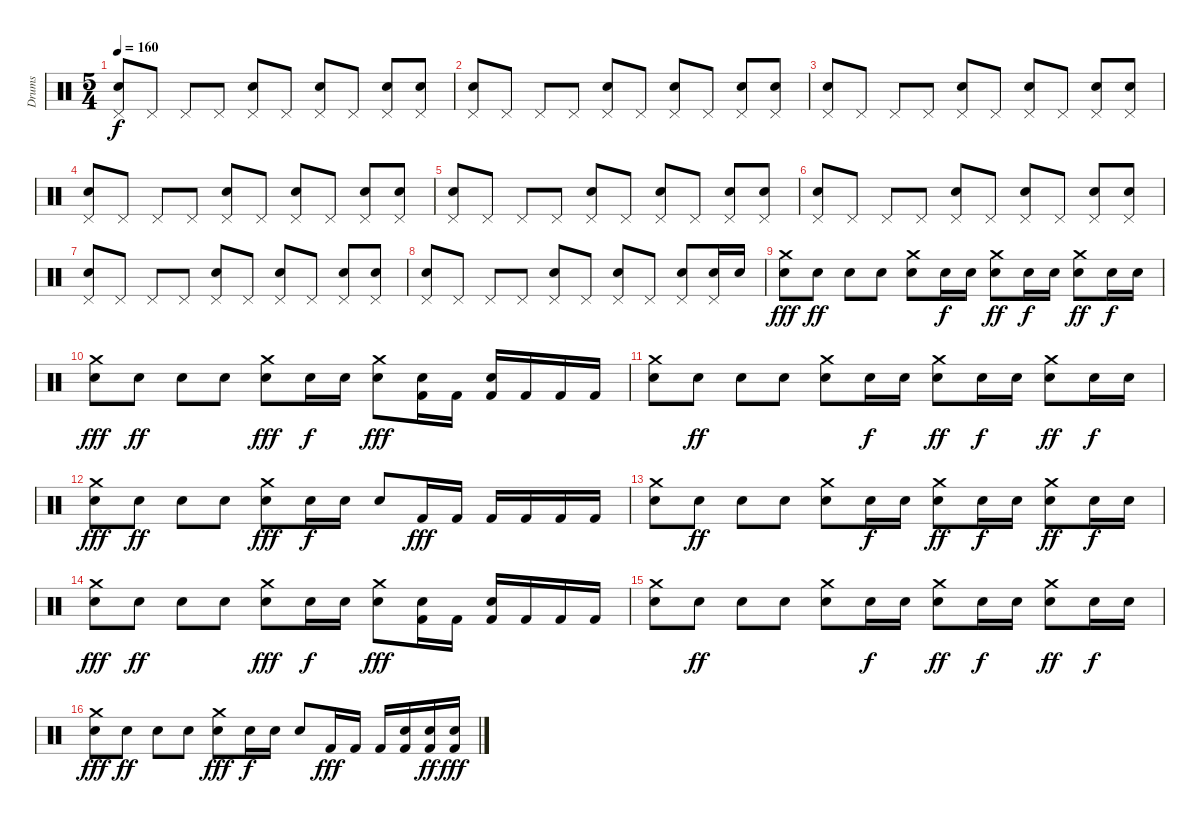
\track ("Drums" "Drums") {instrument percussion}
\staff {score}
\articulation defaults
\ts (5 4)
\tempo 160
\clef neutral
\ks c
("Pedal Hi-Hat (hit)" "Electric Snare (hit)").8{dy f} "Pedal Hi-Hat (hit)".8 "Pedal Hi-Hat (hit)".8 "Pedal Hi-Hat (hit)".8 ("Pedal Hi-Hat (hit)" "Electric Snare (hit)").8 "Pedal Hi-Hat (hit)".8 ("Pedal Hi-Hat (hit)" "Electric Snare (hit)").8 "Pedal Hi-Hat (hit)".8 ("Pedal Hi-Hat (hit)" "Electric Snare (hit)").8 ("Pedal Hi-Hat (hit)" "Electric Snare (hit)").8 |
("Pedal Hi-Hat (hit)" "Electric Snare (hit)").8 "Pedal Hi-Hat (hit)".8 "Pedal Hi-Hat (hit)".8 "Pedal Hi-Hat (hit)".8 ("Pedal Hi-Hat (hit)" "Electric Snare (hit)").8 "Pedal Hi-Hat (hit)".8 ("Pedal Hi-Hat (hit)" "Electric Snare (hit)").8 "Pedal Hi-Hat (hit)".8 ("Pedal Hi-Hat (hit)" "Electric Snare (hit)").8 ("Pedal Hi-Hat (hit)" "Electric Snare (hit)").8 |
("Pedal Hi-Hat (hit)" "Electric Snare (hit)").8 "Pedal Hi-Hat (hit)".8 "Pedal Hi-Hat (hit)".8 "Pedal Hi-Hat (hit)".8 ("Pedal Hi-Hat (hit)" "Electric Snare (hit)").8 "Pedal Hi-Hat (hit)".8 ("Pedal Hi-Hat (hit)" "Electric Snare (hit)").8 "Pedal Hi-Hat (hit)".8 ("Pedal Hi-Hat (hit)" "Electric Snare (hit)").8 ("Pedal Hi-Hat (hit)" "Electric Snare (hit)").8 |
("Pedal Hi-Hat (hit)" "Electric Snare (hit)").8 "Pedal Hi-Hat (hit)".8 "Pedal Hi-Hat (hit)".8 "Pedal Hi-Hat (hit)".8 ("Pedal Hi-Hat (hit)" "Electric Snare (hit)").8 "Pedal Hi-Hat (hit)".8 ("Pedal Hi-Hat (hit)" "Electric Snare (hit)").8 "Pedal Hi-Hat (hit)".8 ("Pedal Hi-Hat (hit)" "Electric Snare (hit)").8 ("Pedal Hi-Hat (hit)" "Electric Snare (hit)").8 |
("Pedal Hi-Hat (hit)" "Electric Snare (hit)").8 "Pedal Hi-Hat (hit)".8 "Pedal Hi-Hat (hit)".8 "Pedal Hi-Hat (hit)".8 ("Pedal Hi-Hat (hit)" "Electric Snare (hit)").8 "Pedal Hi-Hat (hit)".8 ("Pedal Hi-Hat (hit)" "Electric Snare (hit)").8 "Pedal Hi-Hat (hit)".8 ("Pedal Hi-Hat (hit)" "Electric Snare (hit)").8 ("Pedal Hi-Hat (hit)" "Electric Snare (hit)").8 |
("Pedal Hi-Hat (hit)" "Electric Snare (hit)").8 "Pedal Hi-Hat (hit)".8 "Pedal Hi-Hat (hit)".8 "Pedal Hi-Hat (hit)".8 ("Pedal Hi-Hat (hit)" "Electric Snare (hit)").8 "Pedal Hi-Hat (hit)".8 ("Pedal Hi-Hat (hit)" "Electric Snare (hit)").8 "Pedal Hi-Hat (hit)".8 ("Pedal Hi-Hat (hit)" "Electric Snare (hit)").8 ("Pedal Hi-Hat (hit)" "Electric Snare (hit)").8 |
("Pedal Hi-Hat (hit)" "Electric Snare (hit)").8 "Pedal Hi-Hat (hit)".8 "Pedal Hi-Hat (hit)".8 "Pedal Hi-Hat (hit)".8 ("Pedal Hi-Hat (hit)" "Electric Snare (hit)").8 "Pedal Hi-Hat (hit)".8 ("Pedal Hi-Hat (hit)" "Electric Snare (hit)").8 "Pedal Hi-Hat (hit)".8 ("Pedal Hi-Hat (hit)" "Electric Snare (hit)").8 ("Pedal Hi-Hat (hit)" "Electric Snare (hit)").8 |
("Pedal Hi-Hat (hit)" "Electric Snare (hit)").8 "Pedal Hi-Hat (hit)".8 "Pedal Hi-Hat (hit)".8 "Pedal Hi-Hat (hit)".8 ("Pedal Hi-Hat (hit)" "Electric Snare (hit)").8 "Pedal Hi-Hat (hit)".8 ("Pedal Hi-Hat (hit)" "Electric Snare (hit)").8 "Pedal Hi-Hat (hit)".8 ("Pedal Hi-Hat (hit)" "Electric Snare (hit)").8 ("Pedal Hi-Hat (hit)" "Electric Snare (hit)").16 "Electric Snare (hit)".16 |
("Electric Snare (hit)" "Crash medium (hit)").8{dy fff} "Electric Snare (hit)".8{dy ff} "Electric Snare (hit)".8 "Electric Snare (hit)".8 ("Electric Snare (hit)" "Crash medium (hit)").8 "Electric Snare (hit)".16{dy f} "Electric Snare (hit)".16 ("Electric Snare (hit)" "Crash medium (hit)").8{dy ff} "Electric Snare (hit)".16{dy f} "Electric Snare (hit)".16 ("Electric Snare (hit)" "Crash medium (hit)").8{dy ff} "Electric Snare (hit)".16{dy f} "Electric Snare (hit)".16 |
("Electric Snare (hit)" "Crash medium (hit)").8{dy fff} "Electric Snare (hit)".8{dy ff} "Electric Snare (hit)".8 "Electric Snare (hit)".8 ("Electric Snare (hit)" "Crash medium (hit)").8{dy fff} "Electric Snare (hit)".16{dy f} "Electric Snare (hit)".16 ("Electric Snare (hit)" "Crash medium (hit)").8{dy fff} ("Kick (hit) 2" "Electric Snare (hit)").16 "Kick (hit) 2".16 ("Kick (hit) 2" "Electric Snare (hit)").16 "Kick (hit) 2".16 "Kick (hit) 2".16 "Kick (hit) 2".16 |
("Electric Snare (hit)" "Crash medium (hit)").8 "Electric Snare (hit)".8{dy ff} "Electric Snare (hit)".8 "Electric Snare (hit)".8 ("Electric Snare (hit)" "Crash medium (hit)").8 "Electric Snare (hit)".16{dy f} "Electric Snare (hit)".16 ("Electric Snare (hit)" "Crash medium (hit)").8{dy ff} "Electric Snare (hit)".16{dy f} "Electric Snare (hit)".16 ("Electric Snare (hit)" "Crash medium (hit)").8{dy ff} "Electric Snare (hit)".16{dy f} "Electric Snare (hit)".16 |
("Electric Snare (hit)" "Crash medium (hit)").8{dy fff} "Electric Snare (hit)".8{dy ff} "Electric Snare (hit)".8 "Electric Snare (hit)".8 ("Electric Snare (hit)" "Crash medium (hit)").8{dy fff} "Electric Snare (hit)".16{dy f} "Electric Snare (hit)".16 "Electric Snare (hit)".8 "Kick (hit) 2".16{dy fff} "Kick (hit) 2".16 "Kick (hit) 2".16 "Kick (hit) 2".16 "Kick (hit) 2".16 "Kick (hit) 2".16 |
("Electric Snare (hit)" "Crash medium (hit)").8 "Electric Snare (hit)".8{dy ff} "Electric Snare (hit)".8 "Electric Snare (hit)".8 ("Electric Snare (hit)" "Crash medium (hit)").8 "Electric Snare (hit)".16{dy f} "Electric Snare (hit)".16 ("Electric Snare (hit)" "Crash medium (hit)").8{dy ff} "Electric Snare (hit)".16{dy f} "Electric Snare (hit)".16 ("Electric Snare (hit)" "Crash medium (hit)").8{dy ff} "Electric Snare (hit)".16{dy f} "Electric Snare (hit)".16 |
("Electric Snare (hit)" "Crash medium (hit)").8{dy fff} "Electric Snare (hit)".8{dy ff} "Electric Snare (hit)".8 "Electric Snare (hit)".8 ("Electric Snare (hit)" "Crash medium (hit)").8{dy fff} "Electric Snare (hit)".16{dy f} "Electric Snare (hit)".16 ("Electric Snare (hit)" "Crash medium (hit)").8{dy fff} ("Kick (hit) 2" "Electric Snare (hit)").16 "Kick (hit) 2".16 ("Kick (hit) 2" "Electric Snare (hit)").16 "Kick (hit) 2".16 "Kick (hit) 2".16 "Kick (hit) 2".16 |
("Electric Snare (hit)" "Crash medium (hit)").8 "Electric Snare (hit)".8{dy ff} "Electric Snare (hit)".8 "Electric Snare (hit)".8 ("Electric Snare (hit)" "Crash medium (hit)").8 "Electric Snare (hit)".16{dy f} "Electric Snare (hit)".16 ("Electric Snare (hit)" "Crash medium (hit)").8{dy ff} "Electric Snare (hit)".16{dy f} "Electric Snare (hit)".16 ("Electric Snare (hit)" "Crash medium (hit)").8{dy ff} "Electric Snare (hit)".16{dy f} "Electric Snare (hit)".16 |
("Electric Snare (hit)" "Crash medium (hit)").8{dy fff} "Electric Snare (hit)".8{dy ff} "Electric Snare (hit)".8 "Electric Snare (hit)".8 ("Electric Snare (hit)" "Crash medium (hit)").8{dy fff} "Electric Snare (hit)".16{dy f} "Electric Snare (hit)".16 "Electric Snare (hit)".8 "Kick (hit) 2".16{dy fff} "Kick (hit) 2".16 "Kick (hit) 2".16 ("Kick (hit) 2" "Electric Snare (hit)").16 ("Kick (hit) 2" "Electric Snare (hit)").16{dy ff} ("Kick (hit) 2" "Electric Snare (hit)").16{dy fff}
